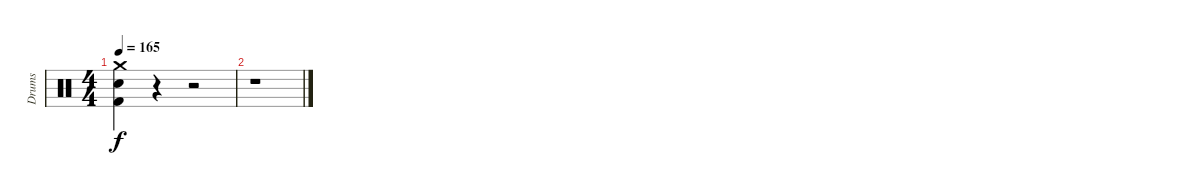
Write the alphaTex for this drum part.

\track ("Drums" "Drums") {instrument percussion}
\staff {score}
\articulation defaults
\ts (4 4)
\tempo 165
\clef neutral
\ks c
("Crash medium (hit)" "Snare (hit) 2" "Kick (hit) 2").4{dy f} r.4 r.2 |
r.1
